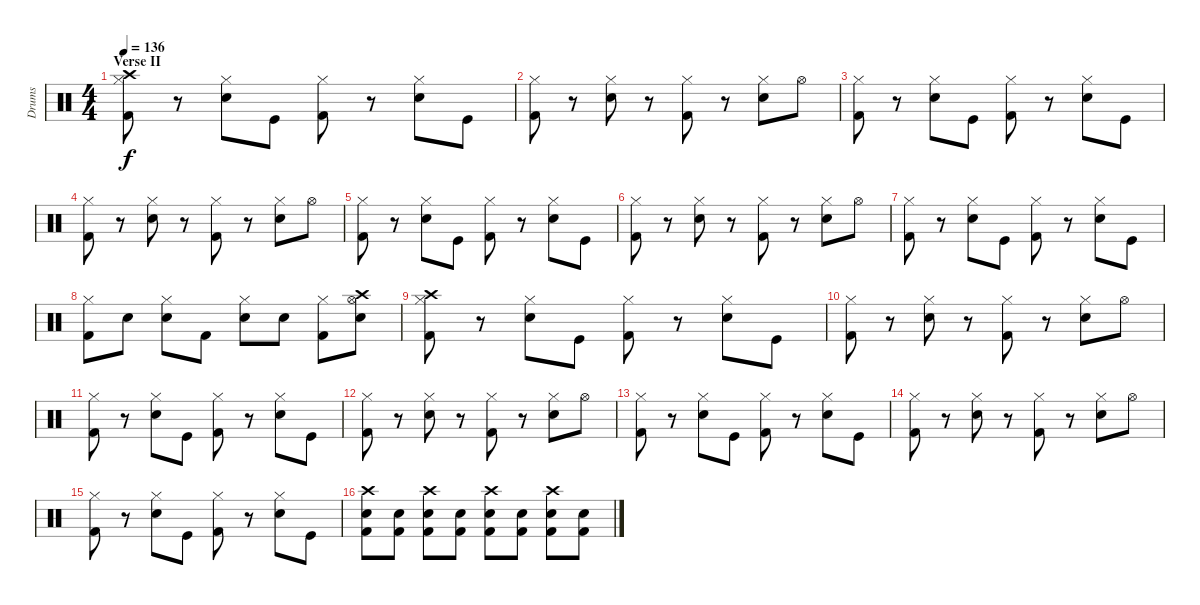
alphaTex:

\track ("Drums" "Drums") {instrument percussion}
\staff {score}
\articulation defaults
\ts (4 4)
\section ("" "Verse II")
\tempo 136
\clef neutral
\ks c
("Hi-Hat (closed)" "Crash high (hit)" "Kick (hit) 2").8{dy f volume 12} r.8 ("Hi-Hat (closed)" "Snare (hit) 2").8 "Kick (hit)".8 ("Hi-Hat (closed)" "Kick (hit) 2").8 r.8 ("Hi-Hat (closed)" "Snare (hit) 2").8 "Kick (hit)".8 |
("Hi-Hat (closed)" "Kick (hit) 2").8 r.8 ("Hi-Hat (closed)" "Snare (hit) 2").8 r.8 ("Hi-Hat (closed)" "Kick (hit) 2").8 r.8 ("Hi-Hat (closed)" "Snare (hit) 2").8 "Hi-Hat (open)".8 |
("Hi-Hat (closed)" "Kick (hit) 2").8 r.8 ("Hi-Hat (closed)" "Snare (hit) 2").8 "Kick (hit)".8 ("Hi-Hat (closed)" "Kick (hit) 2").8 r.8 ("Hi-Hat (closed)" "Snare (hit) 2").8 "Kick (hit)".8 |
("Hi-Hat (closed)" "Kick (hit) 2").8 r.8 ("Hi-Hat (closed)" "Snare (hit) 2").8 r.8 ("Hi-Hat (closed)" "Kick (hit) 2").8 r.8 ("Hi-Hat (closed)" "Snare (hit) 2").8 "Hi-Hat (open)".8 |
("Hi-Hat (closed)" "Kick (hit) 2").8 r.8 ("Hi-Hat (closed)" "Snare (hit) 2").8 "Kick (hit)".8 ("Hi-Hat (closed)" "Kick (hit) 2").8 r.8 ("Hi-Hat (closed)" "Snare (hit) 2").8 "Kick (hit)".8 |
("Hi-Hat (closed)" "Kick (hit) 2").8 r.8 ("Hi-Hat (closed)" "Snare (hit) 2").8 r.8 ("Hi-Hat (closed)" "Kick (hit) 2").8 r.8 ("Hi-Hat (closed)" "Snare (hit) 2").8 "Hi-Hat (open)".8 |
("Hi-Hat (closed)" "Kick (hit) 2").8 r.8 ("Hi-Hat (closed)" "Snare (hit) 2").8 "Kick (hit)".8 ("Hi-Hat (closed)" "Kick (hit) 2").8 r.8 ("Hi-Hat (closed)" "Snare (hit) 2").8 "Kick (hit)".8 |
("Hi-Hat (closed)" "Kick (hit) 2").8 "Snare (hit) 2".8 ("Hi-Hat (closed)" "Snare (hit) 2").8 "Kick (hit) 2".8 ("Hi-Hat (closed)" "Snare (hit) 2").8 "Snare (hit) 2".8 ("Hi-Hat (closed)" "Kick (hit) 2").8 ("Hi-Hat (open)" "Crash high (hit)" "Snare (hit) 2").8 |
("Hi-Hat (closed)" "Crash high (hit)" "Kick (hit) 2").8 r.8 ("Hi-Hat (closed)" "Snare (hit) 2").8 "Kick (hit)".8 ("Hi-Hat (closed)" "Kick (hit) 2").8 r.8 ("Hi-Hat (closed)" "Snare (hit) 2").8 "Kick (hit)".8 |
("Hi-Hat (closed)" "Kick (hit) 2").8 r.8 ("Hi-Hat (closed)" "Snare (hit) 2").8 r.8 ("Hi-Hat (closed)" "Kick (hit) 2").8 r.8 ("Hi-Hat (closed)" "Snare (hit) 2").8 "Hi-Hat (open)".8 |
("Hi-Hat (closed)" "Kick (hit) 2").8 r.8 ("Hi-Hat (closed)" "Snare (hit) 2").8 "Kick (hit)".8 ("Hi-Hat (closed)" "Kick (hit) 2").8 r.8 ("Hi-Hat (closed)" "Snare (hit) 2").8 "Kick (hit)".8 |
("Hi-Hat (closed)" "Kick (hit) 2").8 r.8 ("Hi-Hat (closed)" "Snare (hit) 2").8 r.8 ("Hi-Hat (closed)" "Kick (hit) 2").8 r.8 ("Hi-Hat (closed)" "Snare (hit) 2").8 "Hi-Hat (open)".8 |
("Hi-Hat (closed)" "Kick (hit) 2").8 r.8 ("Hi-Hat (closed)" "Snare (hit) 2").8 "Kick (hit)".8 ("Hi-Hat (closed)" "Kick (hit) 2").8 r.8 ("Hi-Hat (closed)" "Snare (hit) 2").8 "Kick (hit)".8 |
("Hi-Hat (closed)" "Kick (hit) 2").8 r.8 ("Hi-Hat (closed)" "Snare (hit) 2").8 r.8 ("Hi-Hat (closed)" "Kick (hit) 2").8 r.8 ("Hi-Hat (closed)" "Snare (hit) 2").8 "Hi-Hat (open)".8 |
("Hi-Hat (closed)" "Kick (hit) 2").8 r.8 ("Hi-Hat (closed)" "Snare (hit) 2").8 "Kick (hit)".8 ("Hi-Hat (closed)" "Kick (hit) 2").8 r.8 ("Hi-Hat (closed)" "Snare (hit) 2").8 "Kick (hit)".8 |
("Crash high (hit)" "Snare (hit) 2" "Kick (hit) 2").8 ("Snare (hit) 2" "Kick (hit) 2").8 ("Crash high (hit)" "Snare (hit) 2" "Kick (hit) 2").8 ("Snare (hit) 2" "Kick (hit) 2").8 ("Crash high (hit)" "Snare (hit) 2" "Kick (hit) 2").8 ("Snare (hit) 2" "Kick (hit) 2").8 ("Crash high (hit)" "Snare (hit) 2" "Kick (hit) 2").8 ("Snare (hit) 2" "Kick (hit) 2").8
